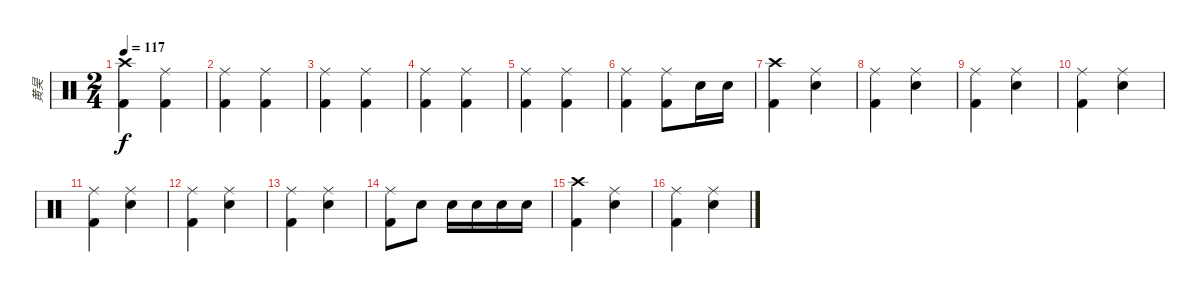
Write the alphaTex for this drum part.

\track ("黄昊" "黄昊") {instrument percussion}
\staff {score}
\articulation defaults
\ts (2 4)
\tempo 117
\clef neutral
\ks c
("Crash high (hit)" "Kick (hit) 2").4{dy f volume 15} ("Ride (middle)" "Kick (hit) 2").4 |
("Ride (middle)" "Kick (hit) 2").4 ("Ride (middle)" "Kick (hit) 2").4 |
("Ride (middle)" "Kick (hit) 2").4 ("Ride (middle)" "Kick (hit) 2").4 |
("Ride (middle)" "Kick (hit) 2").4 ("Ride (middle)" "Kick (hit) 2").4 |
("Ride (middle)" "Kick (hit) 2").4 ("Ride (middle)" "Kick (hit) 2").4 |
("Ride (middle)" "Kick (hit) 2").4 ("Ride (middle)" "Kick (hit) 2").8 "Snare (hit) 2".16 "Snare (hit) 2".16 |
("Crash high (hit)" "Kick (hit) 2").4 ("Ride (middle)" "Snare (hit) 2").4 |
("Ride (middle)" "Kick (hit) 2").4 ("Ride (middle)" "Snare (hit) 2").4 |
("Ride (middle)" "Kick (hit) 2").4 ("Ride (middle)" "Snare (hit) 2").4 |
("Ride (middle)" "Kick (hit) 2").4 ("Ride (middle)" "Snare (hit) 2").4 |
("Ride (middle)" "Kick (hit) 2").4 ("Ride (middle)" "Snare (hit) 2").4 |
("Ride (middle)" "Kick (hit) 2").4 ("Ride (middle)" "Snare (hit) 2").4 |
("Ride (middle)" "Kick (hit) 2").4 ("Ride (middle)" "Snare (hit) 2").4 |
("Ride (middle)" "Kick (hit) 2").8 "Snare (hit) 2".8 "Snare (hit) 2".16 "Snare (hit) 2".16 "Snare (hit) 2".16 "Snare (hit) 2".16 |
("Crash high (hit)" "Kick (hit) 2").4 ("Ride (middle)" "Snare (hit) 2").4 |
("Ride (middle)" "Kick (hit) 2").4 ("Ride (middle)" "Snare (hit) 2").4
